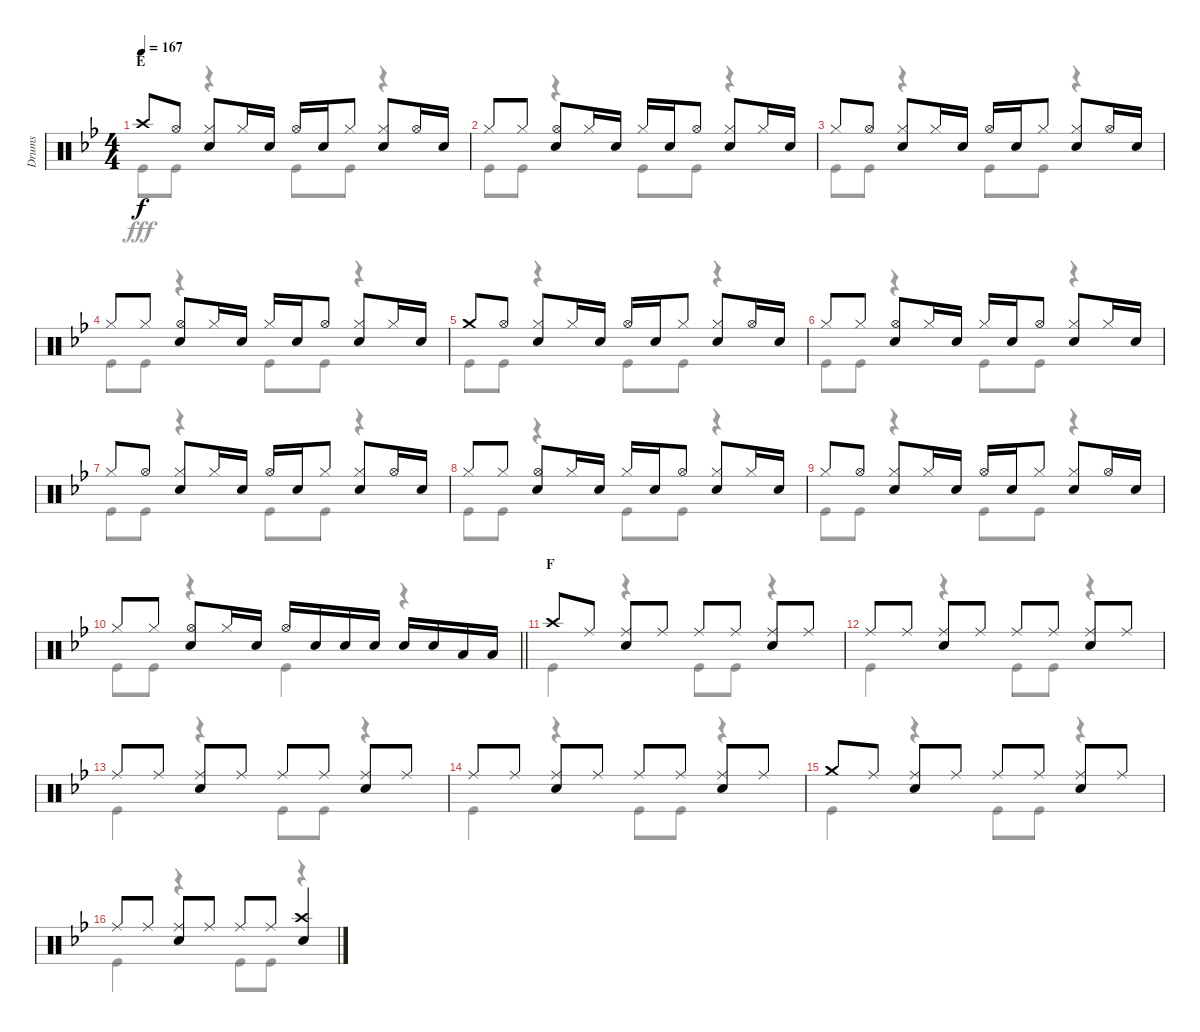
\track ("Drums" "Drums") {instrument percussion}
\staff {score}
\articulation defaults
\voice
\ts (4 4)
\section ("" "E")
\tempo 167
\clef neutral
\ks bb "Crash high (hit)".8{dy f} "Hi-Hat (open)".8
("Hi-Hat (closed)" "Snare (hit) 2").8 "Hi-Hat (closed)".16 "Snare (hit) 2".16 "Hi-Hat (open)".16 "Snare (hit) 2".16 "Hi-Hat (closed)".8 ("Hi-Hat (closed)" "Snare (hit) 2").8 "Hi-Hat (open)".16 "Snare (hit) 2".16 |
"Hi-Hat (closed)".8 "Hi-Hat (closed)".8 ("Hi-Hat (open)" "Snare (hit) 2").8 "Hi-Hat (closed)".16 "Snare (hit) 2".16 "Hi-Hat (closed)".16 "Snare (hit) 2".16 "Hi-Hat (open)".8 ("Hi-Hat (closed)" "Snare (hit) 2").8 "Hi-Hat (closed)".16 "Snare (hit) 2".16 |
"Hi-Hat (closed)".8 "Hi-Hat (open)".8 ("Hi-Hat (closed)" "Snare (hit) 2").8 "Hi-Hat (closed)".16 "Snare (hit) 2".16 "Hi-Hat (open)".16 "Snare (hit) 2".16 "Hi-Hat (closed)".8 ("Hi-Hat (closed)" "Snare (hit) 2").8 "Hi-Hat (open)".16 "Snare (hit) 2".16 |
"Hi-Hat (closed)".8 "Hi-Hat (closed)".8 ("Hi-Hat (open)" "Snare (hit) 2").8 "Hi-Hat (closed)".16 "Snare (hit) 2".16 "Hi-Hat (closed)".16 "Snare (hit) 2".16 "Hi-Hat (open)".8 ("Hi-Hat (closed)" "Snare (hit) 2").8 "Hi-Hat (closed)".16 "Snare (hit) 2".16 |
"Crash medium (hit)".8 "Hi-Hat (open)".8 ("Hi-Hat (closed)" "Snare (hit) 2").8 "Hi-Hat (closed)".16 "Snare (hit) 2".16 "Hi-Hat (open)".16 "Snare (hit) 2".16 "Hi-Hat (closed)".8 ("Hi-Hat (closed)" "Snare (hit) 2").8 "Hi-Hat (open)".16 "Snare (hit) 2".16 |
"Hi-Hat (closed)".8 "Hi-Hat (closed)".8 ("Hi-Hat (open)" "Snare (hit) 2").8 "Hi-Hat (closed)".16 "Snare (hit) 2".16 "Hi-Hat (closed)".16 "Snare (hit) 2".16 "Hi-Hat (open)".8 ("Hi-Hat (closed)" "Snare (hit) 2").8 "Hi-Hat (closed)".16 "Snare (hit) 2".16 |
"Hi-Hat (closed)".8 "Hi-Hat (open)".8 ("Hi-Hat (closed)" "Snare (hit) 2").8 "Hi-Hat (closed)".16 "Snare (hit) 2".16 "Hi-Hat (open)".16 "Snare (hit) 2".16 "Hi-Hat (closed)".8 ("Hi-Hat (closed)" "Snare (hit) 2").8 "Hi-Hat (open)".16 "Snare (hit) 2".16 |
"Hi-Hat (closed)".8 "Hi-Hat (closed)".8 ("Hi-Hat (open)" "Snare (hit) 2").8 "Hi-Hat (closed)".16 "Snare (hit) 2".16 "Hi-Hat (closed)".16 "Snare (hit) 2".16 "Hi-Hat (open)".8 ("Hi-Hat (closed)" "Snare (hit) 2").8 "Hi-Hat (closed)".16 "Snare (hit) 2".16 |
"Hi-Hat (closed)".8 "Hi-Hat (open)".8 ("Hi-Hat (closed)" "Snare (hit) 2").8 "Hi-Hat (closed)".16 "Snare (hit) 2".16 "Hi-Hat (open)".16 "Snare (hit) 2".16 "Hi-Hat (closed)".8 ("Hi-Hat (closed)" "Snare (hit) 2").8 "Hi-Hat (open)".16 "Snare (hit) 2".16 |
\barLineRight lightlight "Hi-Hat (closed)".8 "Hi-Hat (closed)".8
("Hi-Hat (open)" "Snare (hit) 2").8 "Hi-Hat (closed)".16 "Snare (hit) 2".16 "Hi-Hat (open)".16 "Snare (hit) 2".16 "Snare (hit) 2".16 "Snare (hit) 2".16 "Snare (hit) 2".16 "Snare (hit) 2".16 "Low Tom (hit)".16 "Low Tom (hit)".16 |
\section ("" "F")
"Crash high (hit)".8 "Ride (middle)".8 ("Ride (middle)" "Snare (hit) 2").8 "Ride (middle)".8 "Ride (middle)".8 "Ride (middle)".8 ("Ride (middle)" "Snare (hit) 2").8 "Ride (middle)".8 |
"Ride (middle)".8 "Ride (middle)".8 ("Ride (middle)" "Snare (hit) 2").8 "Ride (middle)".8 "Ride (middle)".8 "Ride (middle)".8 ("Ride (middle)" "Snare (hit) 2").8 "Ride (middle)".8 |
"Ride (middle)".8 "Ride (middle)".8 ("Ride (middle)" "Snare (hit) 2").8 "Ride (middle)".8 "Ride (middle)".8 "Ride (middle)".8 ("Ride (middle)" "Snare (hit) 2").8 "Ride (middle)".8 |
"Ride (middle)".8 "Ride (middle)".8 ("Ride (middle)" "Snare (hit) 2").8 "Ride (middle)".8 "Ride (middle)".8 "Ride (middle)".8 ("Ride (middle)" "Snare (hit) 2").8 "Ride (middle)".8 |
"Crash medium (hit)".8 "Ride (middle)".8 ("Ride (middle)" "Snare (hit) 2").8 "Ride (middle)".8 "Ride (middle)".8 "Ride (middle)".8 ("Ride (middle)" "Snare (hit) 2").8 "Ride (middle)".8 |
"Ride (middle)".8 "Ride (middle)".8 ("Ride (middle)" "Snare (hit) 2").8 "Ride (middle)".8 "Ride (middle)".8 "Ride (middle)".8 ("Crash high (hit)" "Snare (hit) 2").4
\voice
\clef neutral
\ottava regular
\simile none
\ks bb "Kick (hit)".8{dy fff} "Kick (hit)".8
r.4 "Kick (hit)".8 "Kick (hit)".8 r.4 |
"Kick (hit)".8 "Kick (hit)".8 r.4 "Kick (hit)".8 "Kick (hit)".8 r.4 |
"Kick (hit)".8 "Kick (hit)".8 r.4 "Kick (hit)".8 "Kick (hit)".8 r.4 |
"Kick (hit)".8 "Kick (hit)".8 r.4 "Kick (hit)".8 "Kick (hit)".8 r.4 |
"Kick (hit)".8 "Kick (hit)".8 r.4 "Kick (hit)".8 "Kick (hit)".8 r.4 |
"Kick (hit)".8 "Kick (hit)".8 r.4 "Kick (hit)".8 "Kick (hit)".8 r.4 |
"Kick (hit)".8 "Kick (hit)".8 r.4 "Kick (hit)".8 "Kick (hit)".8 r.4 |
"Kick (hit)".8 "Kick (hit)".8 r.4 "Kick (hit)".8 "Kick (hit)".8 r.4 |
"Kick (hit)".8 "Kick (hit)".8 r.4 "Kick (hit)".8 "Kick (hit)".8 r.4 |
\barLineRight lightlight "Kick (hit)".8 "Kick (hit)".8
r.4 "Kick (hit)".4 r.4 |
"Kick (hit)".4 r.4 "Kick (hit)".8 "Kick (hit)".8 r.4 |
"Kick (hit)".4 r.4 "Kick (hit)".8 "Kick (hit)".8 r.4 |
"Kick (hit)".4 r.4 "Kick (hit)".8 "Kick (hit)".8 r.4 |
"Kick (hit)".4 r.4 "Kick (hit)".8 "Kick (hit)".8 r.4 |
"Kick (hit)".4 r.4 "Kick (hit)".8 "Kick (hit)".8 r.4 |
"Kick (hit)".4 r.4 "Kick (hit)".8 "Kick (hit)".8 r.4
